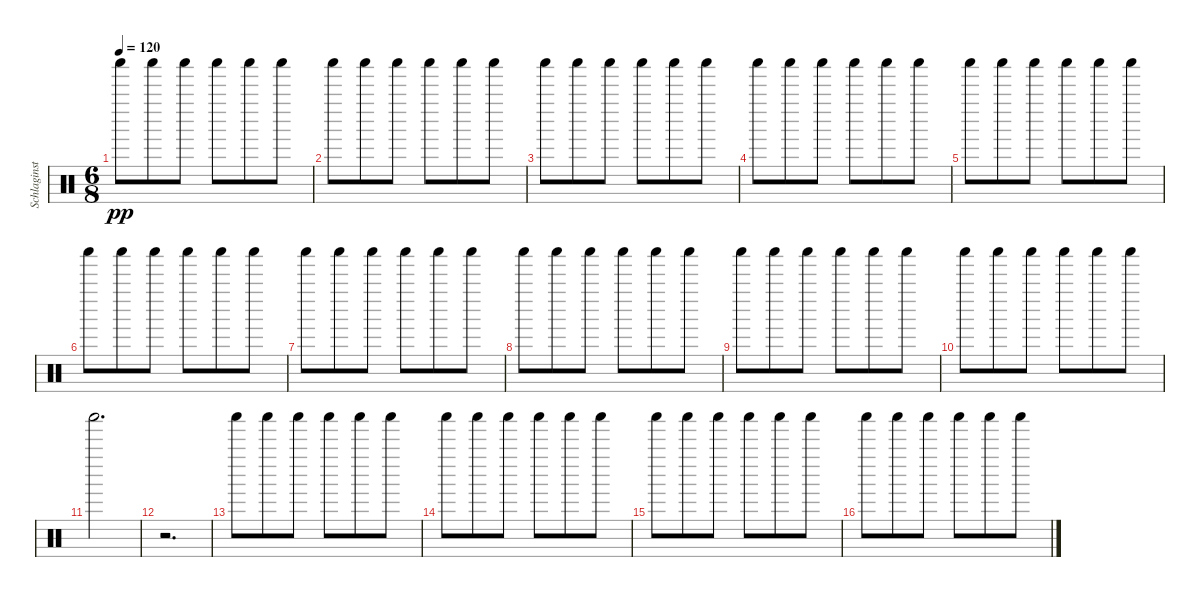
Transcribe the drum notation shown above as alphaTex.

\track ("Schlaginstrumente - Auswahl" "Schlaginst") {instrument percussion}
\staff {score}
\articulation defaults
\ts (6 8)
\tempo 120
\clef neutral
\ks c "Shaker (hit)".8{dy pp} "Shaker (hit)".8 "Shaker (hit)".8 "Shaker (hit)".8 "Shaker (hit)".8 "Shaker (hit)".8
|
"Shaker (hit)".8 "Shaker (hit)".8 "Shaker (hit)".8 "Shaker (hit)".8 "Shaker (hit)".8 "Shaker (hit)".8 |
"Shaker (hit)".8 "Shaker (hit)".8 "Shaker (hit)".8 "Shaker (hit)".8 "Shaker (hit)".8 "Shaker (hit)".8 |
"Shaker (hit)".8 "Shaker (hit)".8 "Shaker (hit)".8 "Shaker (hit)".8 "Shaker (hit)".8 "Shaker (hit)".8 |
"Shaker (hit)".8 "Shaker (hit)".8 "Shaker (hit)".8 "Shaker (hit)".8 "Shaker (hit)".8 "Shaker (hit)".8 |
"Shaker (hit)".8 "Shaker (hit)".8 "Shaker (hit)".8 "Shaker (hit)".8 "Shaker (hit)".8 "Shaker (hit)".8 |
"Shaker (hit)".8 "Shaker (hit)".8 "Shaker (hit)".8 "Shaker (hit)".8 "Shaker (hit)".8 "Shaker (hit)".8 |
"Shaker (hit)".8 "Shaker (hit)".8 "Shaker (hit)".8 "Shaker (hit)".8 "Shaker (hit)".8 "Shaker (hit)".8 |
"Shaker (hit)".8 "Shaker (hit)".8 "Shaker (hit)".8 "Shaker (hit)".8 "Shaker (hit)".8 "Shaker (hit)".8 |
"Shaker (hit)".8 "Shaker (hit)".8 "Shaker (hit)".8 "Shaker (hit)".8 "Shaker (hit)".8 "Shaker (hit)".8 |
"Shaker (hit)".2{d} |
r.2{d} |
"Shaker (hit)".8 "Shaker (hit)".8 "Shaker (hit)".8 "Shaker (hit)".8 "Shaker (hit)".8 "Shaker (hit)".8 |
"Shaker (hit)".8 "Shaker (hit)".8 "Shaker (hit)".8 "Shaker (hit)".8 "Shaker (hit)".8 "Shaker (hit)".8 |
"Shaker (hit)".8 "Shaker (hit)".8 "Shaker (hit)".8 "Shaker (hit)".8 "Shaker (hit)".8 "Shaker (hit)".8 |
"Shaker (hit)".8 "Shaker (hit)".8 "Shaker (hit)".8 "Shaker (hit)".8 "Shaker (hit)".8 "Shaker (hit)".8
